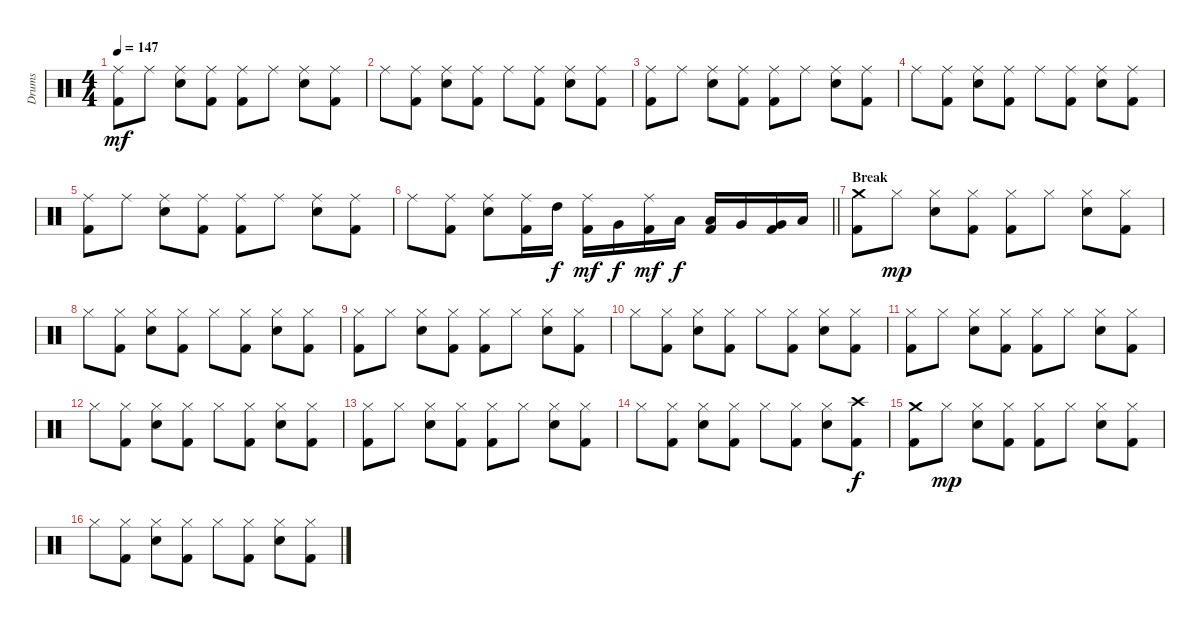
\track ("Drums" "Drums") {instrument percussion}
\staff {score}
\articulation defaults
\ts (4 4)
\tempo 147
\clef neutral
\ks c
("Ride (middle)" "Kick (hit) 2").8{dy mf} "Ride (middle)".8 ("Ride (middle)" "Snare (hit) 2").8 ("Ride (middle)" "Kick (hit) 2").8 ("Ride (middle)" "Kick (hit) 2").8 "Ride (middle)".8 ("Ride (middle)" "Snare (hit) 2").8 ("Ride (middle)" "Kick (hit) 2").8 |
"Ride (middle)".8 ("Ride (middle)" "Kick (hit) 2").8 ("Ride (middle)" "Snare (hit) 2").8 ("Ride (middle)" "Kick (hit) 2").8 "Ride (middle)".8 ("Ride (middle)" "Kick (hit) 2").8 ("Ride (middle)" "Snare (hit) 2").8 ("Ride (middle)" "Kick (hit) 2").8 |
("Ride (middle)" "Kick (hit) 2").8 "Ride (middle)".8 ("Ride (middle)" "Snare (hit) 2").8 ("Ride (middle)" "Kick (hit) 2").8 ("Ride (middle)" "Kick (hit) 2").8 "Ride (middle)".8 ("Ride (middle)" "Snare (hit) 2").8 ("Ride (middle)" "Kick (hit) 2").8 |
"Ride (middle)".8 ("Ride (middle)" "Kick (hit) 2").8 ("Ride (middle)" "Snare (hit) 2").8 ("Ride (middle)" "Kick (hit) 2").8 "Ride (middle)".8 ("Ride (middle)" "Kick (hit) 2").8 ("Ride (middle)" "Snare (hit) 2").8 ("Ride (middle)" "Kick (hit) 2").8 |
("Ride (middle)" "Kick (hit) 2").8 "Ride (middle)".8 ("Ride (middle)" "Snare (hit) 2").8 ("Ride (middle)" "Kick (hit) 2").8 ("Ride (middle)" "Kick (hit) 2").8 "Ride (middle)".8 ("Ride (middle)" "Snare (hit) 2").8 ("Ride (middle)" "Kick (hit) 2").8 |
\barLineRight lightlight "Ride (middle)".8
("Ride (middle)" "Kick (hit) 2").8 ("Ride (middle)" "Snare (hit) 2").8 ("Ride (middle)" "Kick (hit) 2").16 "High Tom (hit)".16{dy f} ("Ride (middle)" "Kick (hit) 2").16{dy mf} "Very Low Tom (hit)".16{dy f} ("Ride (middle)" "Kick (hit) 2").16{dy mf} "Low Tom (hit)".16{dy f} ("Low Tom (hit)" "Kick (hit) 2").16 "Very Low Tom (hit)".16 ("Very Low Tom (hit)" "Kick (hit) 2").16 "Low Floor Tom (hit)".16 |
\section ("" "Break")
("Crash medium (hit)" "Kick (hit) 2").8 "Hi-Hat (closed)".8{dy mp} ("Hi-Hat (closed)" "Snare (hit) 2").8 ("Hi-Hat (closed)" "Kick (hit) 2").8 ("Hi-Hat (closed)" "Kick (hit) 2").8 "Hi-Hat (closed)".8 ("Hi-Hat (closed)" "Snare (hit) 2").8 ("Hi-Hat (closed)" "Kick (hit) 2").8 |
"Hi-Hat (closed)".8 ("Hi-Hat (closed)" "Kick (hit) 2").8 ("Hi-Hat (closed)" "Snare (hit) 2").8 ("Hi-Hat (closed)" "Kick (hit) 2").8 "Hi-Hat (closed)".8 ("Hi-Hat (closed)" "Kick (hit) 2").8 ("Hi-Hat (closed)" "Snare (hit) 2").8 ("Hi-Hat (closed)" "Kick (hit) 2").8 |
("Hi-Hat (closed)" "Kick (hit) 2").8 "Hi-Hat (closed)".8 ("Hi-Hat (closed)" "Snare (hit) 2").8 ("Hi-Hat (closed)" "Kick (hit) 2").8 ("Hi-Hat (closed)" "Kick (hit) 2").8 "Hi-Hat (closed)".8 ("Hi-Hat (closed)" "Snare (hit) 2").8 ("Hi-Hat (closed)" "Kick (hit) 2").8 |
"Hi-Hat (closed)".8 ("Hi-Hat (closed)" "Kick (hit) 2").8 ("Hi-Hat (closed)" "Snare (hit) 2").8 ("Hi-Hat (closed)" "Kick (hit) 2").8 "Hi-Hat (closed)".8 ("Hi-Hat (closed)" "Kick (hit) 2").8 ("Hi-Hat (closed)" "Snare (hit) 2").8 ("Hi-Hat (closed)" "Kick (hit) 2").8 |
("Hi-Hat (closed)" "Kick (hit) 2").8 "Hi-Hat (closed)".8 ("Hi-Hat (closed)" "Snare (hit) 2").8 ("Hi-Hat (closed)" "Kick (hit) 2").8 ("Hi-Hat (closed)" "Kick (hit) 2").8 "Hi-Hat (closed)".8 ("Hi-Hat (closed)" "Snare (hit) 2").8 ("Hi-Hat (closed)" "Kick (hit) 2").8 |
"Hi-Hat (closed)".8 ("Hi-Hat (closed)" "Kick (hit) 2").8 ("Hi-Hat (closed)" "Snare (hit) 2").8 ("Hi-Hat (closed)" "Kick (hit) 2").8 "Hi-Hat (closed)".8 ("Hi-Hat (closed)" "Kick (hit) 2").8 ("Hi-Hat (closed)" "Snare (hit) 2").8 ("Hi-Hat (closed)" "Kick (hit) 2").8 |
("Hi-Hat (closed)" "Kick (hit) 2").8 "Hi-Hat (closed)".8 ("Hi-Hat (closed)" "Snare (hit) 2").8 ("Hi-Hat (closed)" "Kick (hit) 2").8 ("Hi-Hat (closed)" "Kick (hit) 2").8 "Hi-Hat (closed)".8 ("Hi-Hat (closed)" "Snare (hit) 2").8 ("Hi-Hat (closed)" "Kick (hit) 2").8 |
"Hi-Hat (closed)".8 ("Hi-Hat (closed)" "Kick (hit) 2").8 ("Hi-Hat (closed)" "Snare (hit) 2").8 ("Hi-Hat (closed)" "Kick (hit) 2").8 "Hi-Hat (closed)".8 ("Hi-Hat (closed)" "Kick (hit) 2").8 ("Hi-Hat (closed)" "Snare (hit) 2").8 ("Crash high (hit)" "Kick (hit) 2").8{dy f} |
("Crash medium (hit)" "Kick (hit) 2").8 "Hi-Hat (closed)".8{dy mp} ("Hi-Hat (closed)" "Snare (hit) 2").8 ("Hi-Hat (closed)" "Kick (hit) 2").8 ("Hi-Hat (closed)" "Kick (hit) 2").8 "Hi-Hat (closed)".8 ("Hi-Hat (closed)" "Snare (hit) 2").8 ("Hi-Hat (closed)" "Kick (hit) 2").8 |
"Hi-Hat (closed)".8 ("Hi-Hat (closed)" "Kick (hit) 2").8 ("Hi-Hat (closed)" "Snare (hit) 2").8 ("Hi-Hat (closed)" "Kick (hit) 2").8 "Hi-Hat (closed)".8 ("Hi-Hat (closed)" "Kick (hit) 2").8 ("Hi-Hat (closed)" "Snare (hit) 2").8 ("Hi-Hat (closed)" "Kick (hit) 2").8
